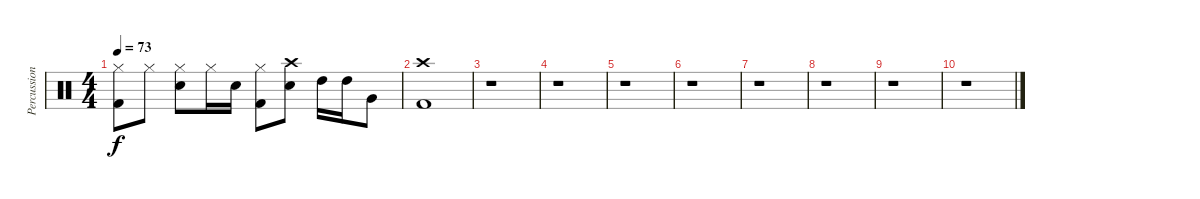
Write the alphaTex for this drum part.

\track ("Percussioni" "Percussion") {instrument percussion}
\staff {score}
\articulation defaults
\ts (4 4)
\tempo 73
\clef neutral
\ks c
("Hi-Hat (closed)" "Kick (hit) 2").8{dy f} "Hi-Hat (closed)".8 ("Hi-Hat (closed)" "Electric Snare (hit)").8 "Hi-Hat (closed)".16 "Electric Snare (hit)".16 ("Hi-Hat (closed)" "Kick (hit) 2").8 ("Crash high (hit)" "Electric Snare (hit)").8 "High Tom (hit)".16 "High Tom (hit)".16 "Very Low Tom (hit)".8 |
("Crash high (hit)" "Kick (hit) 2").1 |
r.1 |
r.1 |
r.1 |
r.1 |
r.1 |
r.1 |
r.1 |
r.1
